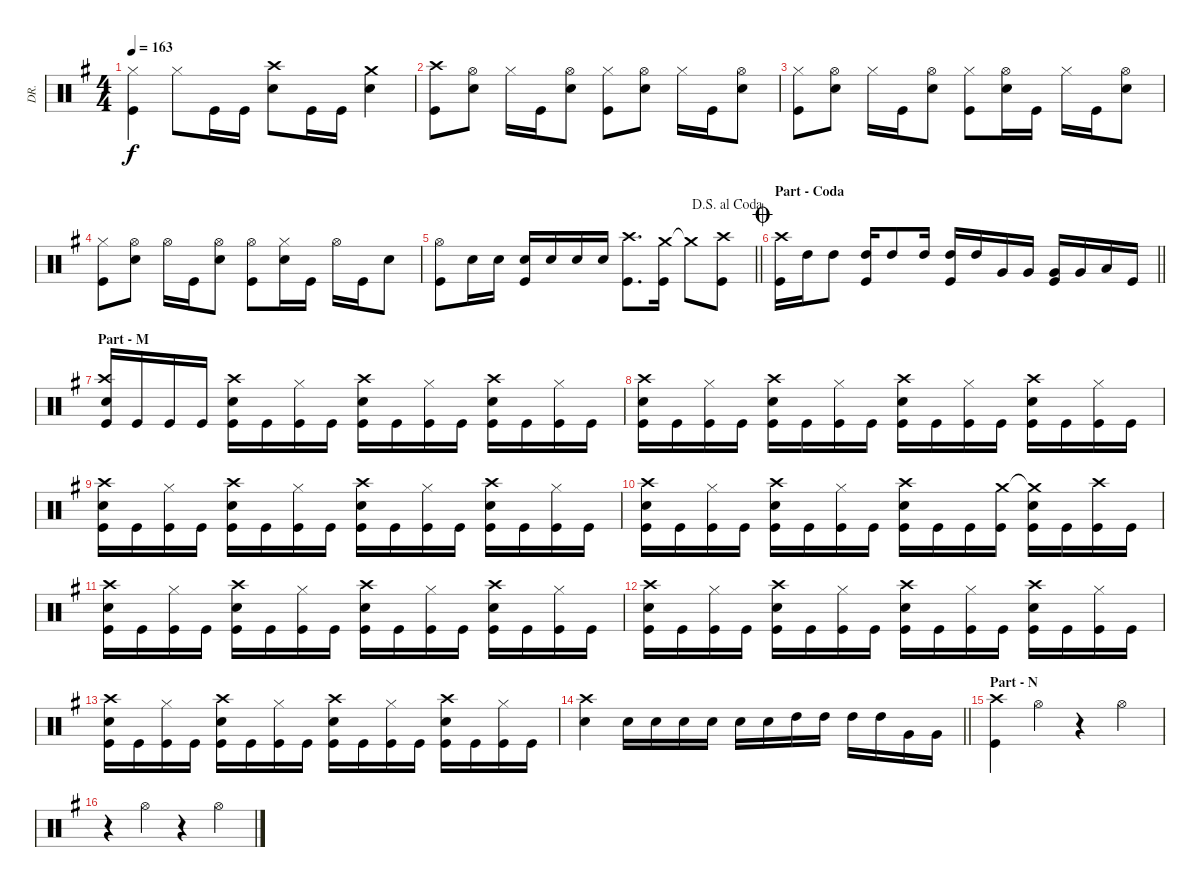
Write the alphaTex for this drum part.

\track ("DR." "DR.") {instrument percussion}
\staff {score}
\articulation defaults
\ts (4 4)
\tempo 163
\clef neutral
\ks g
("Hi-Hat (closed)" "Kick (hit)").4{dy f} "Hi-Hat (closed)".8 "Kick (hit)".16 "Kick (hit)".16 ("Crash high (hit)" "Snare (hit) 2").8 "Kick (hit)".16 "Kick (hit)".16 ("Crash medium (hit)" "Snare (hit) 2").4 |
("Crash high (hit)" "Kick (hit)").8 ("Hi-Hat (open)" "Snare (hit) 2").8 "Hi-Hat (closed)".16 "Kick (hit)".16 ("Hi-Hat (open)" "Snare (hit) 2").8 ("Hi-Hat (closed)" "Kick (hit)").8 ("Hi-Hat (open)" "Snare (hit) 2").8 "Hi-Hat (closed)".16 "Kick (hit)".16 ("Hi-Hat (open)" "Snare (hit) 2").8 |
("Hi-Hat (closed)" "Kick (hit)").8 ("Hi-Hat (open)" "Snare (hit) 2").8 "Hi-Hat (closed)".16 "Kick (hit)".16 ("Hi-Hat (open)" "Snare (hit) 2").8 ("Hi-Hat (closed)" "Kick (hit)").8 ("Hi-Hat (open)" "Snare (hit) 2").16 "Kick (hit)".16 "Hi-Hat (closed)".16 "Kick (hit)".16 ("Hi-Hat (open)" "Snare (hit) 2").8 |
("Hi-Hat (closed)" "Kick (hit)").8 ("Hi-Hat (open)" "Snare (hit) 2").8 "Hi-Hat (open)".16 "Kick (hit)".16 ("Hi-Hat (open)" "Snare (hit) 2").8 ("Hi-Hat (open)" "Kick (hit)").8 ("Hi-Hat (closed)" "Snare (hit) 2").16 "Kick (hit)".16 "Hi-Hat (open)".16 "Kick (hit)".16 "Snare (hit) 2".8 |
\jump dalsegnoalcoda
\barLineRight lightlight
("Hi-Hat (open)" "Kick (hit)").8 "Snare (hit) 2".16 "Snare (hit) 2".16 ("Snare (hit) 2" "Kick (hit)").16 "Snare (hit) 2".16 "Snare (hit) 2".16 "Snare (hit) 2".16 ("Crash high (hit)" "Kick (hit)").8{d} ("Crash medium (hit)" "Kick (hit)").16 "Crash medium (hit)"{t}.8 ("Crash high (hit)" "Kick (hit)").8 |
\section ("" "Part - Coda")
\jump coda
\barLineRight lightlight
("Crash high (hit)" "Kick (hit)").16 "High Tom (hit)".16 "High Tom (hit)".8 ("High Tom (hit)" "Kick (hit)").16 "High Tom (hit)".8 "High Tom (hit)".16 ("High Tom (hit)" "Kick (hit)").16 "High Tom (hit)".16 "Very Low Tom (hit)".16 "Very Low Tom (hit)".16 ("Very Low Tom (hit)" "Kick (hit)").16 "Very Low Tom (hit)".16 "Low Floor Tom (hit)".16 "Kick (hit)".16 |
\section ("" "Part - M")
("Crash high (hit)" "Snare (hit) 2" "Kick (hit)").16 "Kick (hit)".16 "Kick (hit)".16 "Kick (hit)".16 ("Crash high (hit)" "Snare (hit) 2" "Kick (hit)").16 "Kick (hit)".16 ("Hi-Hat (closed)" "Kick (hit)").16 "Kick (hit)".16 ("Crash high (hit)" "Snare (hit) 2" "Kick (hit)").16 "Kick (hit)".16 ("Hi-Hat (closed)" "Kick (hit)").16 "Kick (hit)".16 ("Crash high (hit)" "Snare (hit) 2" "Kick (hit)").16 "Kick (hit)".16 ("Hi-Hat (closed)" "Kick (hit)").16 "Kick (hit)".16 |
("Crash high (hit)" "Snare (hit) 2" "Kick (hit)").16 "Kick (hit)".16 ("Hi-Hat (closed)" "Kick (hit)").16 "Kick (hit)".16 ("Crash high (hit)" "Snare (hit) 2" "Kick (hit)").16 "Kick (hit)".16 ("Hi-Hat (closed)" "Kick (hit)").16 "Kick (hit)".16 ("Crash high (hit)" "Snare (hit) 2" "Kick (hit)").16 "Kick (hit)".16 ("Hi-Hat (closed)" "Kick (hit)").16 "Kick (hit)".16 ("Crash high (hit)" "Snare (hit) 2" "Kick (hit)").16 "Kick (hit)".16 ("Hi-Hat (closed)" "Kick (hit)").16 "Kick (hit)".16 |
("Crash high (hit)" "Snare (hit) 2" "Kick (hit)").16 "Kick (hit)".16 ("Hi-Hat (closed)" "Kick (hit)").16 "Kick (hit)".16 ("Crash high (hit)" "Snare (hit) 2" "Kick (hit)").16 "Kick (hit)".16 ("Hi-Hat (closed)" "Kick (hit)").16 "Kick (hit)".16 ("Crash high (hit)" "Snare (hit) 2" "Kick (hit)").16 "Kick (hit)".16 ("Hi-Hat (closed)" "Kick (hit)").16 "Kick (hit)".16 ("Crash high (hit)" "Snare (hit) 2" "Kick (hit)").16 "Kick (hit)".16 ("Hi-Hat (closed)" "Kick (hit)").16 "Kick (hit)".16 |
("Crash high (hit)" "Snare (hit) 2" "Kick (hit)").16 "Kick (hit)".16 ("Hi-Hat (closed)" "Kick (hit)").16 "Kick (hit)".16 ("Crash high (hit)" "Snare (hit) 2" "Kick (hit)").16 "Kick (hit)".16 ("Hi-Hat (closed)" "Kick (hit)").16 "Kick (hit)".16 ("Crash high (hit)" "Snare (hit) 2" "Kick (hit)").16 "Kick (hit)".16 "Kick (hit)".16 ("Crash medium (hit)" "Kick (hit)").16 ("Crash medium (hit)"{t} "Snare (hit) 2" "Kick (hit)").16 "Kick (hit)".16 ("Crash high (hit)" "Kick (hit)").16 "Kick (hit)".16 |
("Crash high (hit)" "Snare (hit) 2" "Kick (hit)").16 "Kick (hit)".16 ("Hi-Hat (closed)" "Kick (hit)").16 "Kick (hit)".16 ("Crash high (hit)" "Snare (hit) 2" "Kick (hit)").16 "Kick (hit)".16 ("Hi-Hat (closed)" "Kick (hit)").16 "Kick (hit)".16 ("Crash high (hit)" "Snare (hit) 2" "Kick (hit)").16 "Kick (hit)".16 ("Hi-Hat (closed)" "Kick (hit)").16 "Kick (hit)".16 ("Crash high (hit)" "Snare (hit) 2" "Kick (hit)").16 "Kick (hit)".16 ("Hi-Hat (closed)" "Kick (hit)").16 "Kick (hit)".16 |
("Crash high (hit)" "Snare (hit) 2" "Kick (hit)").16 "Kick (hit)".16 ("Hi-Hat (closed)" "Kick (hit)").16 "Kick (hit)".16 ("Crash high (hit)" "Snare (hit) 2" "Kick (hit)").16 "Kick (hit)".16 ("Hi-Hat (closed)" "Kick (hit)").16 "Kick (hit)".16 ("Crash high (hit)" "Snare (hit) 2" "Kick (hit)").16 "Kick (hit)".16 ("Hi-Hat (closed)" "Kick (hit)").16 "Kick (hit)".16 ("Crash high (hit)" "Snare (hit) 2" "Kick (hit)").16 "Kick (hit)".16 ("Hi-Hat (closed)" "Kick (hit)").16 "Kick (hit)".16 |
("Crash high (hit)" "Snare (hit) 2" "Kick (hit)").16 "Kick (hit)".16 ("Hi-Hat (closed)" "Kick (hit)").16 "Kick (hit)".16 ("Crash high (hit)" "Snare (hit) 2" "Kick (hit)").16 "Kick (hit)".16 ("Hi-Hat (closed)" "Kick (hit)").16 "Kick (hit)".16 ("Crash high (hit)" "Snare (hit) 2" "Kick (hit)").16 "Kick (hit)".16 ("Hi-Hat (closed)" "Kick (hit)").16 "Kick (hit)".16 ("Crash high (hit)" "Snare (hit) 2" "Kick (hit)").16 "Kick (hit)".16 ("Hi-Hat (closed)" "Kick (hit)").16 "Kick (hit)".16 |
\barLineRight lightlight
("Crash high (hit)" "Snare (hit) 2").4 "Snare (hit) 2".16 "Snare (hit) 2".16 "Snare (hit) 2".16 "Snare (hit) 2".16 "Snare (hit) 2".16 "Snare (hit) 2".16 "High Tom (hit)".16 "High Tom (hit)".16 "High Tom (hit)".16 "High Tom (hit)".16 "Very Low Tom (hit)".16 "Very Low Tom (hit)".16 |
\section ("" "Part - N")
("Crash high (hit)" "Kick (hit)").4 "Hi-Hat (open)".4 r.4 "Hi-Hat (open)".4 |
r.4 "Hi-Hat (open)".4 r.4 "Hi-Hat (open)".4
